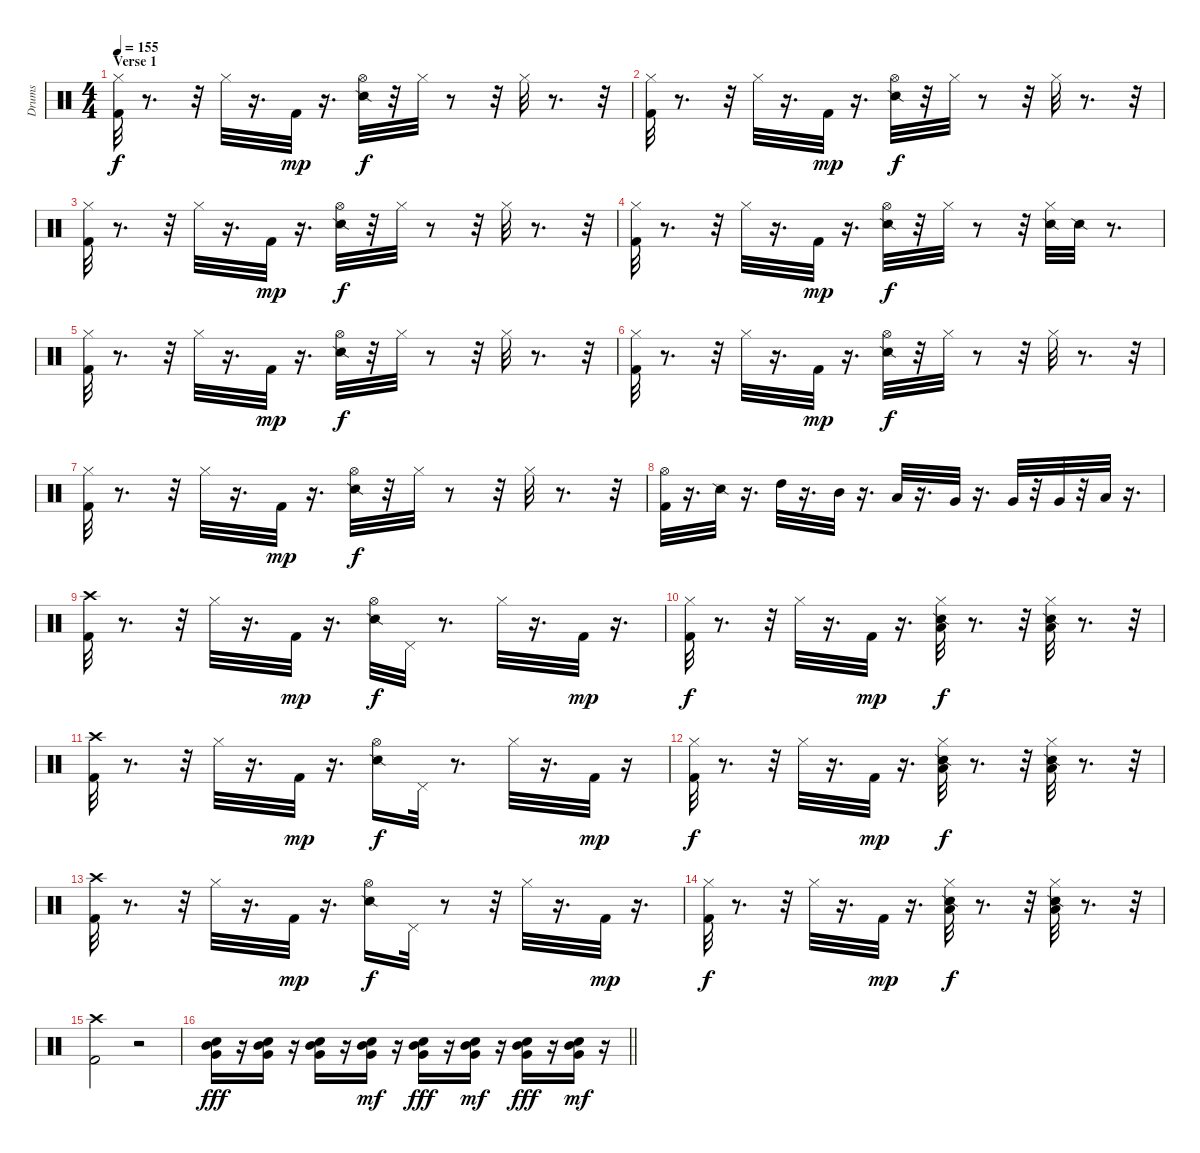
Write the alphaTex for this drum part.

\track ("Drums" "Drums") {instrument percussion}
\staff {score}
\articulation defaults
\ts (4 4)
\section ("" "Verse 1")
\tempo 155
\clef neutral
\ks c
("Hi-Hat (closed)" "Kick (hit) 2").32{dy f} r.8{d} r.32 "Hi-Hat (closed)".32 r.16{d} "Kick (hit) 2".32{dy mp} r.16{d} ("Hi-Hat (open)" "Snare (side stick) 2").32{dy f} r.32 "Hi-Hat (closed)".32 r.8 r.32 "Hi-Hat (closed)".32 r.8{d} r.32 |
("Hi-Hat (closed)" "Kick (hit) 2").32 r.8{d} r.32 "Hi-Hat (closed)".32 r.16{d} "Kick (hit) 2".32{dy mp} r.16{d} ("Hi-Hat (open)" "Snare (side stick) 2").32{dy f} r.32 "Hi-Hat (closed)".32 r.8 r.32 "Hi-Hat (closed)".32 r.8{d} r.32 |
("Hi-Hat (closed)" "Kick (hit) 2").32 r.8{d} r.32 "Hi-Hat (closed)".32 r.16{d} "Kick (hit) 2".32{dy mp} r.16{d} ("Hi-Hat (open)" "Snare (side stick) 2").32{dy f} r.32 "Hi-Hat (closed)".32 r.8 r.32 "Hi-Hat (closed)".32 r.8{d} r.32 |
("Hi-Hat (closed)" "Kick (hit) 2").32 r.8{d} r.32 "Hi-Hat (closed)".32 r.16{d} "Kick (hit) 2".32{dy mp} r.16{d} ("Hi-Hat (open)" "Snare (side stick) 2").32{dy f} r.32 "Hi-Hat (closed)".32 r.8 r.32 ("Snare (side stick) 2" "Hi-Hat (closed)").32 "Snare (side stick) 2".32 r.8{d} |
("Hi-Hat (closed)" "Kick (hit) 2").32 r.8{d} r.32 "Hi-Hat (closed)".32 r.16{d} "Kick (hit) 2".32{dy mp} r.16{d} ("Hi-Hat (open)" "Snare (side stick) 2").32{dy f} r.32 "Hi-Hat (closed)".32 r.8 r.32 "Hi-Hat (closed)".32 r.8{d} r.32 |
("Hi-Hat (closed)" "Kick (hit) 2").32 r.8{d} r.32 "Hi-Hat (closed)".32 r.16{d} "Kick (hit) 2".32{dy mp} r.16{d} ("Hi-Hat (open)" "Snare (side stick) 2").32{dy f} r.32 "Hi-Hat (closed)".32 r.8 r.32 "Hi-Hat (closed)".32 r.8{d} r.32 |
("Hi-Hat (closed)" "Kick (hit) 2").32 r.8{d} r.32 "Hi-Hat (closed)".32 r.16{d} "Kick (hit) 2".32{dy mp} r.16{d} ("Hi-Hat (open)" "Snare (side stick) 2").32{dy f} r.32 "Hi-Hat (closed)".32 r.8 r.32 "Hi-Hat (closed)".32 r.8{d} r.32 |
("Kick (hit) 2" "Hi-Hat (open)").32 r.16{d} "Snare (side stick) 2".32 r.16{d} "High Tom (hit)".32 r.16{d} "Mid Tom (hit)".32 r.16{d} "Low Tom (hit)".32 r.16{d} "Very Low Tom (hit)".32 r.16{d} "Very Low Tom (hit)".32 r.32 "Very Low Tom (hit)".32 r.32 "Low Floor Tom (hit)".32 r.16{d} |
("Crash high (hit)" "Kick (hit) 2").32 r.8{d} r.32 "Hi-Hat (closed)".32 r.16{d} "Kick (hit) 2".32{dy mp} r.16{d} ("Hi-Hat (open)" "Snare (side stick) 2").32{dy f} "Pedal Hi-Hat (hit)".32 r.8{d} "Hi-Hat (closed)".32 r.16{d} "Kick (hit) 2".32{dy mp} r.16{d} |
("Hi-Hat (closed)" "Kick (hit) 2").32{dy f} r.8{d} r.32 "Hi-Hat (closed)".32 r.16{d} "Kick (hit) 2".32{dy mp} r.16{d} ("Hi-Hat (closed)" "Low Tom (hit)" "Snare (side stick) 2").32{dy f} r.8{d} r.32 ("Hi-Hat (closed)" "Snare (side stick) 2" "Low Floor Tom (hit)").32 r.8{d} r.32 |
("Crash high (hit)" "Kick (hit) 2").32 r.8{d} r.32 "Hi-Hat (closed)".32 r.16{d} "Kick (hit) 2".32{dy mp} r.16{d} ("Hi-Hat (open)" "Snare (side stick) 2").16{dy f} "Pedal Hi-Hat (hit)".32 r.8{d} "Hi-Hat (closed)".32 r.16{d} "Kick (hit) 2".32{dy mp} r.16 |
("Hi-Hat (closed)" "Kick (hit) 2").32{dy f} r.8{d} r.32 "Hi-Hat (closed)".32 r.16{d} "Kick (hit) 2".32{dy mp} r.16{d} ("Hi-Hat (closed)" "Low Tom (hit)" "Snare (side stick) 2").32{dy f} r.8{d} r.32 ("Hi-Hat (closed)" "Snare (side stick) 2" "Low Floor Tom (hit)").32 r.8{d} r.32 |
("Crash high (hit)" "Kick (hit) 2").32 r.8{d} r.32 "Hi-Hat (closed)".32 r.16{d} "Kick (hit) 2".32{dy mp} r.16{d} ("Hi-Hat (open)" "Snare (side stick) 2").16{dy f} "Pedal Hi-Hat (hit)".32 r.8 r.32 "Hi-Hat (closed)".32 r.16{d} "Kick (hit) 2".32{dy mp} r.16{d} |
("Hi-Hat (closed)" "Kick (hit) 2").32{dy f} r.8{d} r.32 "Hi-Hat (closed)".32 r.16{d} "Kick (hit) 2".32{dy mp} r.16{d} ("Hi-Hat (closed)" "Low Tom (hit)" "Snare (side stick) 2").32{dy f} r.8{d} r.32 ("Hi-Hat (closed)" "Snare (side stick) 2" "Low Floor Tom (hit)").32 r.8{d} r.32 |
("Crash high (hit)" "Kick (hit) 2").2 r.2 |
\barLineRight lightlight
("Snare (hit)" "Mid Tom (hit)" "Very Low Tom (hit)").16{dy fff} r.16 ("Very Low Tom (hit)" "Mid Tom (hit)" "Snare (hit)").16 r.16 ("Snare (hit)" "Mid Tom (hit)" "Very Low Tom (hit)").16 r.16 ("Snare (hit)" "Very Low Tom (hit)" "Mid Tom (hit)").16{dy mf} r.16 ("Snare (hit)" "Mid Tom (hit)" "Very Low Tom (hit)").16{dy fff} r.16 ("Snare (hit)" "Very Low Tom (hit)" "Mid Tom (hit)").16{dy mf} r.16 ("Snare (hit)" "Mid Tom (hit)" "Very Low Tom (hit)").16{dy fff} r.16 ("Snare (hit)" "Very Low Tom (hit)" "Mid Tom (hit)").16{dy mf} r.16
